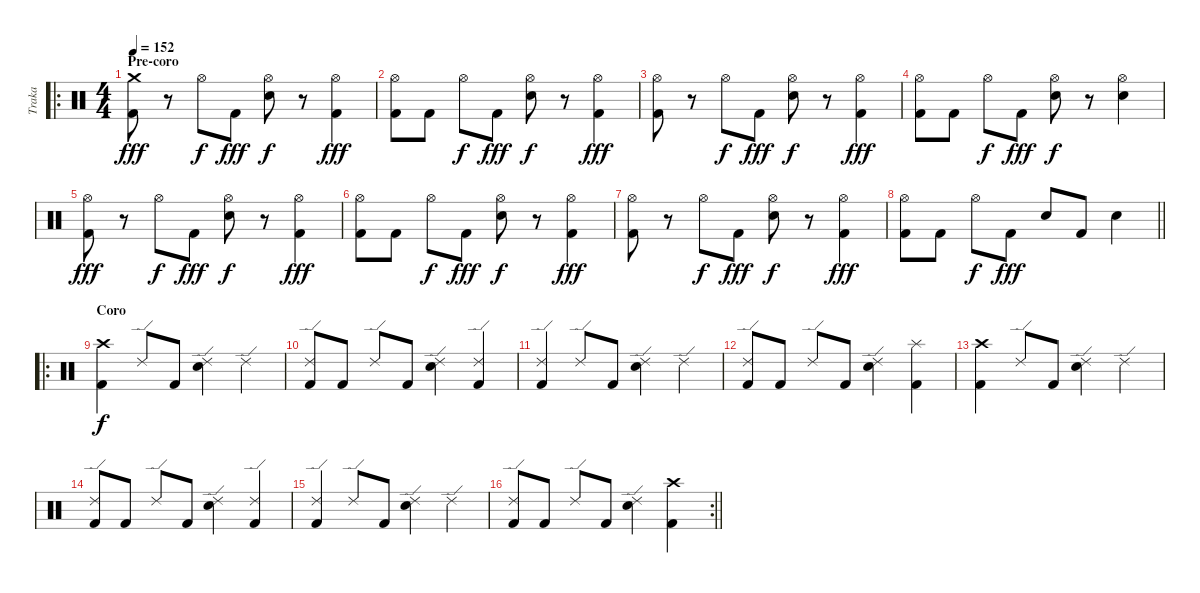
\track ("Traka" "Traka") {instrument percussion}
\staff {score}
\articulation defaults
\ro
\ts (4 4)
\section ("" "Pre-coro")
\tempo 152
\clef neutral
\ks c
("Crash medium (hit)" "Kick (hit) 2").8{dy fff} r.8 "Hi-Hat (open)".8{dy f} "Kick (hit) 2".8{dy fff} ("Hi-Hat (open)" "Electric Snare (hit)").8{dy f} r.8 ("Hi-Hat (open)" "Kick (hit) 2").4{dy fff} |
("Hi-Hat (open)" "Kick (hit) 2").8 "Kick (hit) 2".8 "Hi-Hat (open)".8{dy f} "Kick (hit) 2".8{dy fff} ("Hi-Hat (open)" "Electric Snare (hit)").8{dy f} r.8 ("Hi-Hat (open)" "Kick (hit) 2").4{dy fff} |
("Hi-Hat (open)" "Kick (hit) 2").8 r.8 "Hi-Hat (open)".8{dy f} "Kick (hit) 2".8{dy fff} ("Hi-Hat (open)" "Electric Snare (hit)").8{dy f} r.8 ("Hi-Hat (open)" "Kick (hit) 2").4{dy fff} |
("Hi-Hat (open)" "Kick (hit) 2").8 "Kick (hit) 2".8 "Hi-Hat (open)".8{dy f} "Kick (hit) 2".8{dy fff} ("Hi-Hat (open)" "Electric Snare (hit)").8{dy f} r.8 ("Hi-Hat (open)" "Electric Snare (hit)").4 |
("Hi-Hat (open)" "Kick (hit) 2").8{dy fff} r.8 "Hi-Hat (open)".8{dy f} "Kick (hit) 2".8{dy fff} ("Hi-Hat (open)" "Electric Snare (hit)").8{dy f} r.8 ("Hi-Hat (open)" "Kick (hit) 2").4{dy fff} |
("Hi-Hat (open)" "Kick (hit) 2").8 "Kick (hit) 2".8 "Hi-Hat (open)".8{dy f} "Kick (hit) 2".8{dy fff} ("Hi-Hat (open)" "Electric Snare (hit)").8{dy f} r.8 ("Hi-Hat (open)" "Kick (hit) 2").4{dy fff} |
("Hi-Hat (open)" "Kick (hit) 2").8 r.8 "Hi-Hat (open)".8{dy f} "Kick (hit) 2".8{dy fff} ("Hi-Hat (open)" "Electric Snare (hit)").8{dy f} r.8 ("Hi-Hat (open)" "Kick (hit) 2").4{dy fff} |
\barLineRight lightlight
("Hi-Hat (open)" "Kick (hit) 2").8 "Kick (hit) 2".8 "Hi-Hat (open)".8{dy f} "Kick (hit) 2".8{dy fff} "Electric Snare (hit)".8 "Kick (hit) 2".8 "Electric Snare (hit)".4 |
\ro
\section ("" "Coro")
("Crash high (hit)" "Kick (hit) 2").4{dy f} "Ride (edge) 2".8 "Kick (hit) 2".8 ("Ride (edge) 2" "Electric Snare (hit)").4 "Ride (edge) 2".4 |
("Ride (edge) 2" "Kick (hit) 2").8 "Kick (hit) 2".8 "Ride (edge) 2".8 "Kick (hit) 2".8 ("Ride (edge) 2" "Electric Snare (hit)").4 ("Ride (edge) 2" "Kick (hit) 2").4 |
("Ride (edge) 2" "Kick (hit) 2").4 "Ride (edge) 2".8 "Kick (hit) 2".8 ("Ride (edge) 2" "Electric Snare (hit)").4 "Ride (edge) 2".4 |
("Ride (edge) 2" "Kick (hit) 2").8 "Kick (hit) 2".8 "Ride (edge) 2".8 "Kick (hit) 2".8 ("Ride (edge) 2" "Electric Snare (hit)").4 ("Splash (hit)" "Kick (hit) 2").4 |
("Crash high (hit)" "Kick (hit) 2").4 "Ride (edge) 2".8 "Kick (hit) 2".8 ("Ride (edge) 2" "Electric Snare (hit)").4 "Ride (edge) 2".4 |
("Ride (edge) 2" "Kick (hit) 2").8 "Kick (hit) 2".8 "Ride (edge) 2".8 "Kick (hit) 2".8 ("Ride (edge) 2" "Electric Snare (hit)").4 ("Ride (edge) 2" "Kick (hit) 2").4 |
("Ride (edge) 2" "Kick (hit) 2").4 "Ride (edge) 2".8 "Kick (hit) 2".8 ("Ride (edge) 2" "Electric Snare (hit)").4 "Ride (edge) 2".4 |
\rc 2
\barLineRight lightlight
("Ride (edge) 2" "Kick (hit) 2").8 "Kick (hit) 2".8 "Ride (edge) 2".8 "Kick (hit) 2".8 ("Ride (edge) 2" "Electric Snare (hit)").4 ("Crash high (hit)" "Kick (hit) 2").4
